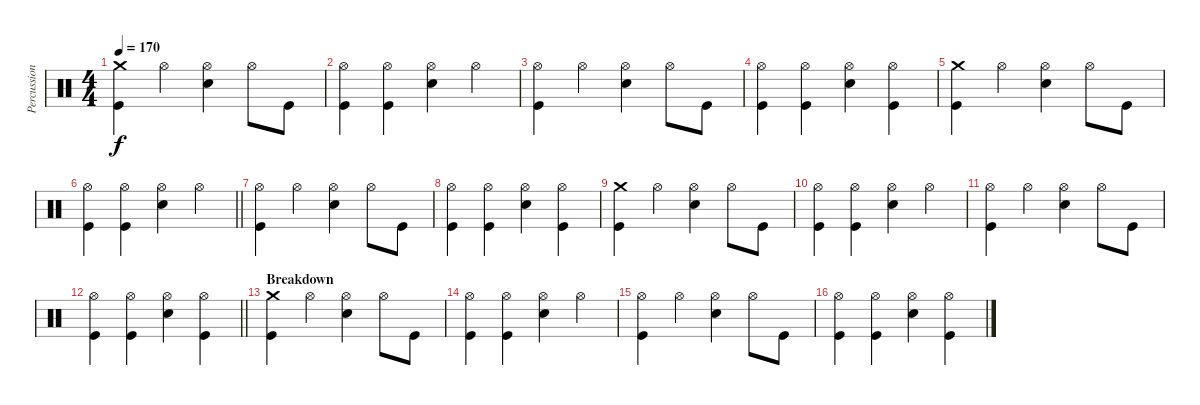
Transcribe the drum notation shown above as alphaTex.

\track ("Percussion" "Percussion") {instrument percussion}
\staff {score}
\articulation defaults
\ts (4 4)
\tempo 170
\clef neutral
\ks c
("Crash medium (hit)" "Kick (hit)").4{dy f} "Hi-Hat (open)".4 ("Hi-Hat (open)" "Electric Snare (hit)").4 "Hi-Hat (open)".8 "Kick (hit)".8 |
("Hi-Hat (open)" "Kick (hit)").4 ("Hi-Hat (open)" "Kick (hit)").4 ("Hi-Hat (open)" "Electric Snare (hit)").4 "Hi-Hat (open)".4 |
("Hi-Hat (open)" "Kick (hit)").4 "Hi-Hat (open)".4 ("Hi-Hat (open)" "Electric Snare (hit)").4 "Hi-Hat (open)".8 "Kick (hit)".8 |
("Hi-Hat (open)" "Kick (hit)").4 ("Hi-Hat (open)" "Kick (hit)").4 ("Hi-Hat (open)" "Electric Snare (hit)").4 ("Hi-Hat (open)" "Kick (hit)").4 |
("Crash medium (hit)" "Kick (hit)").4 "Hi-Hat (open)".4 ("Hi-Hat (open)" "Electric Snare (hit)").4 "Hi-Hat (open)".8 "Kick (hit)".8 |
\barLineRight lightlight
("Hi-Hat (open)" "Kick (hit)").4 ("Hi-Hat (open)" "Kick (hit)").4 ("Hi-Hat (open)" "Electric Snare (hit)").4 "Hi-Hat (open)".4 |
("Hi-Hat (open)" "Kick (hit)").4 "Hi-Hat (open)".4 ("Hi-Hat (open)" "Electric Snare (hit)").4 "Hi-Hat (open)".8 "Kick (hit)".8 |
("Hi-Hat (open)" "Kick (hit)").4 ("Hi-Hat (open)" "Kick (hit)").4 ("Hi-Hat (open)" "Electric Snare (hit)").4 ("Hi-Hat (open)" "Kick (hit)").4 |
("Crash medium (hit)" "Kick (hit)").4 "Hi-Hat (open)".4 ("Hi-Hat (open)" "Electric Snare (hit)").4 "Hi-Hat (open)".8 "Kick (hit)".8 |
("Hi-Hat (open)" "Kick (hit)").4 ("Hi-Hat (open)" "Kick (hit)").4 ("Hi-Hat (open)" "Electric Snare (hit)").4 "Hi-Hat (open)".4 |
("Hi-Hat (open)" "Kick (hit)").4 "Hi-Hat (open)".4 ("Hi-Hat (open)" "Electric Snare (hit)").4 "Hi-Hat (open)".8 "Kick (hit)".8 |
\barLineRight lightlight
("Hi-Hat (open)" "Kick (hit)").4 ("Hi-Hat (open)" "Kick (hit)").4 ("Hi-Hat (open)" "Electric Snare (hit)").4 ("Hi-Hat (open)" "Kick (hit)").4 |
\section ("" "Breakdown")
("Crash medium (hit)" "Kick (hit)").4 "Hi-Hat (open)".4 ("Hi-Hat (open)" "Electric Snare (hit)").4 "Hi-Hat (open)".8 "Kick (hit)".8 |
("Hi-Hat (open)" "Kick (hit)").4 ("Hi-Hat (open)" "Kick (hit)").4 ("Hi-Hat (open)" "Electric Snare (hit)").4 "Hi-Hat (open)".4 |
("Hi-Hat (open)" "Kick (hit)").4 "Hi-Hat (open)".4 ("Hi-Hat (open)" "Electric Snare (hit)").4 "Hi-Hat (open)".8 "Kick (hit)".8 |
("Hi-Hat (open)" "Kick (hit)").4 ("Hi-Hat (open)" "Kick (hit)").4 ("Hi-Hat (open)" "Electric Snare (hit)").4 ("Hi-Hat (open)" "Kick (hit)").4
